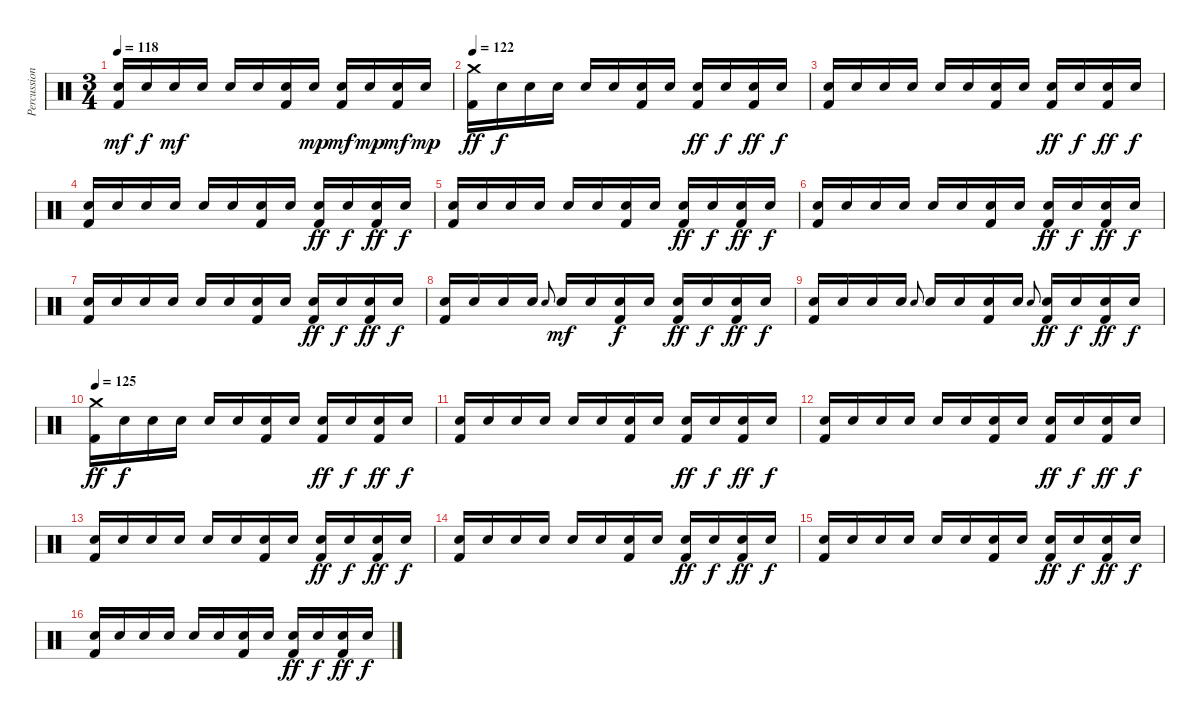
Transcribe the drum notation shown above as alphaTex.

\track ("Percussion" "Percussion") {instrument percussion}
\staff {score}
\articulation defaults
\ts (3 4)
\tempo 118
\clef neutral
\ks c
("Snare (hit) 2" "Kick (hit) 2").16{dy mf} "Snare (hit) 2".16{dy f} "Snare (hit) 2".16{dy mf} "Snare (hit) 2".16 "Snare (hit) 2".16 "Snare (hit) 2".16 ("Snare (hit) 2" "Kick (hit) 2").16 "Snare (hit) 2".16{dy mp} ("Snare (hit) 2" "Kick (hit) 2").16{dy mf} "Snare (hit) 2".16{dy mp} ("Snare (hit) 2" "Kick (hit) 2").16{dy mf} "Snare (hit) 2".16{dy mp} |
\tempo 122
("Crash medium (hit)" "Kick (hit) 2").16{dy ff volume 10} "Snare (hit) 2".16{dy f} "Snare (hit) 2".16 "Snare (hit) 2".16 "Snare (hit) 2".16 "Snare (hit) 2".16 ("Snare (hit) 2" "Kick (hit) 2").16 "Snare (hit) 2".16 ("Snare (hit) 2" "Kick (hit) 2").16{dy ff} "Snare (hit) 2".16{dy f} ("Snare (hit) 2" "Kick (hit) 2").16{dy ff} "Snare (hit) 2".16{dy f} |
("Snare (hit) 2" "Kick (hit) 2").16 "Snare (hit) 2".16 "Snare (hit) 2".16 "Snare (hit) 2".16 "Snare (hit) 2".16 "Snare (hit) 2".16 ("Snare (hit) 2" "Kick (hit) 2").16 "Snare (hit) 2".16 ("Snare (hit) 2" "Kick (hit) 2").16{dy ff} "Snare (hit) 2".16{dy f} ("Snare (hit) 2" "Kick (hit) 2").16{dy ff} "Snare (hit) 2".16{dy f} |
("Snare (hit) 2" "Kick (hit) 2").16 "Snare (hit) 2".16 "Snare (hit) 2".16 "Snare (hit) 2".16 "Snare (hit) 2".16 "Snare (hit) 2".16 ("Snare (hit) 2" "Kick (hit) 2").16 "Snare (hit) 2".16 ("Snare (hit) 2" "Kick (hit) 2").16{dy ff} "Snare (hit) 2".16{dy f} ("Snare (hit) 2" "Kick (hit) 2").16{dy ff} "Snare (hit) 2".16{dy f} |
("Snare (hit) 2" "Kick (hit) 2").16 "Snare (hit) 2".16 "Snare (hit) 2".16 "Snare (hit) 2".16 "Snare (hit) 2".16 "Snare (hit) 2".16 ("Snare (hit) 2" "Kick (hit) 2").16 "Snare (hit) 2".16 ("Snare (hit) 2" "Kick (hit) 2").16{dy ff} "Snare (hit) 2".16{dy f} ("Snare (hit) 2" "Kick (hit) 2").16{dy ff} "Snare (hit) 2".16{dy f} |
("Snare (hit) 2" "Kick (hit) 2").16 "Snare (hit) 2".16 "Snare (hit) 2".16 "Snare (hit) 2".16 "Snare (hit) 2".16 "Snare (hit) 2".16 ("Snare (hit) 2" "Kick (hit) 2").16 "Snare (hit) 2".16 ("Snare (hit) 2" "Kick (hit) 2").16{dy ff} "Snare (hit) 2".16{dy f} ("Snare (hit) 2" "Kick (hit) 2").16{dy ff} "Snare (hit) 2".16{dy f} |
("Snare (hit) 2" "Kick (hit) 2").16 "Snare (hit) 2".16 "Snare (hit) 2".16 "Snare (hit) 2".16 "Snare (hit) 2".16 "Snare (hit) 2".16 ("Snare (hit) 2" "Kick (hit) 2").16 "Snare (hit) 2".16 ("Snare (hit) 2" "Kick (hit) 2").16{dy ff} "Snare (hit) 2".16{dy f} ("Snare (hit) 2" "Kick (hit) 2").16{dy ff} "Snare (hit) 2".16{dy f} |
("Snare (hit) 2" "Kick (hit) 2").16 "Snare (hit) 2".16 "Snare (hit) 2".16 "Snare (hit) 2".16 "Snare (hit) 2".8{gr onbeat} "Snare (hit) 2".16{dy mf} "Snare (hit) 2".16 ("Snare (hit) 2" "Kick (hit) 2").16{dy f} "Snare (hit) 2".16 ("Snare (hit) 2" "Kick (hit) 2").16{dy ff} "Snare (hit) 2".16{dy f} ("Snare (hit) 2" "Kick (hit) 2").16{dy ff} "Snare (hit) 2".16{dy f} |
("Snare (hit) 2" "Kick (hit) 2").16 "Snare (hit) 2".16 "Snare (hit) 2".16 "Snare (hit) 2".16 "Snare (hit) 2".8{gr onbeat} "Snare (hit) 2".16 "Snare (hit) 2".16 ("Snare (hit) 2" "Kick (hit) 2").16 "Snare (hit) 2".16 "Snare (hit) 2".8{gr onbeat} ("Snare (hit) 2" "Kick (hit) 2").16{dy ff} "Snare (hit) 2".16{dy f} ("Snare (hit) 2" "Kick (hit) 2").16{dy ff} "Snare (hit) 2".16{dy f} |
\tempo 125
("Crash medium (hit)" "Kick (hit) 2").16{dy ff volume 12} "Snare (hit) 2".16{dy f} "Snare (hit) 2".16 "Snare (hit) 2".16 "Snare (hit) 2".16 "Snare (hit) 2".16 ("Snare (hit) 2" "Kick (hit) 2").16 "Snare (hit) 2".16 ("Snare (hit) 2" "Kick (hit) 2").16{dy ff} "Snare (hit) 2".16{dy f} ("Snare (hit) 2" "Kick (hit) 2").16{dy ff} "Snare (hit) 2".16{dy f} |
("Snare (hit) 2" "Kick (hit) 2").16 "Snare (hit) 2".16 "Snare (hit) 2".16 "Snare (hit) 2".16 "Snare (hit) 2".16 "Snare (hit) 2".16 ("Snare (hit) 2" "Kick (hit) 2").16 "Snare (hit) 2".16 ("Snare (hit) 2" "Kick (hit) 2").16{dy ff} "Snare (hit) 2".16{dy f} ("Snare (hit) 2" "Kick (hit) 2").16{dy ff} "Snare (hit) 2".16{dy f} |
("Snare (hit) 2" "Kick (hit) 2").16 "Snare (hit) 2".16 "Snare (hit) 2".16 "Snare (hit) 2".16 "Snare (hit) 2".16 "Snare (hit) 2".16 ("Snare (hit) 2" "Kick (hit) 2").16 "Snare (hit) 2".16 ("Snare (hit) 2" "Kick (hit) 2").16{dy ff} "Snare (hit) 2".16{dy f} ("Snare (hit) 2" "Kick (hit) 2").16{dy ff} "Snare (hit) 2".16{dy f} |
("Snare (hit) 2" "Kick (hit) 2").16 "Snare (hit) 2".16 "Snare (hit) 2".16 "Snare (hit) 2".16 "Snare (hit) 2".16 "Snare (hit) 2".16 ("Snare (hit) 2" "Kick (hit) 2").16 "Snare (hit) 2".16 ("Snare (hit) 2" "Kick (hit) 2").16{dy ff} "Snare (hit) 2".16{dy f} ("Snare (hit) 2" "Kick (hit) 2").16{dy ff} "Snare (hit) 2".16{dy f} |
("Snare (hit) 2" "Kick (hit) 2").16 "Snare (hit) 2".16 "Snare (hit) 2".16 "Snare (hit) 2".16 "Snare (hit) 2".16 "Snare (hit) 2".16 ("Snare (hit) 2" "Kick (hit) 2").16 "Snare (hit) 2".16 ("Snare (hit) 2" "Kick (hit) 2").16{dy ff} "Snare (hit) 2".16{dy f} ("Snare (hit) 2" "Kick (hit) 2").16{dy ff} "Snare (hit) 2".16{dy f} |
("Snare (hit) 2" "Kick (hit) 2").16 "Snare (hit) 2".16 "Snare (hit) 2".16 "Snare (hit) 2".16 "Snare (hit) 2".16 "Snare (hit) 2".16 ("Snare (hit) 2" "Kick (hit) 2").16 "Snare (hit) 2".16 ("Snare (hit) 2" "Kick (hit) 2").16{dy ff} "Snare (hit) 2".16{dy f} ("Snare (hit) 2" "Kick (hit) 2").16{dy ff} "Snare (hit) 2".16{dy f} |
("Snare (hit) 2" "Kick (hit) 2").16 "Snare (hit) 2".16 "Snare (hit) 2".16 "Snare (hit) 2".16 "Snare (hit) 2".16 "Snare (hit) 2".16 ("Snare (hit) 2" "Kick (hit) 2").16 "Snare (hit) 2".16 ("Snare (hit) 2" "Kick (hit) 2").16{dy ff} "Snare (hit) 2".16{dy f} ("Snare (hit) 2" "Kick (hit) 2").16{dy ff} "Snare (hit) 2".16{dy f}
